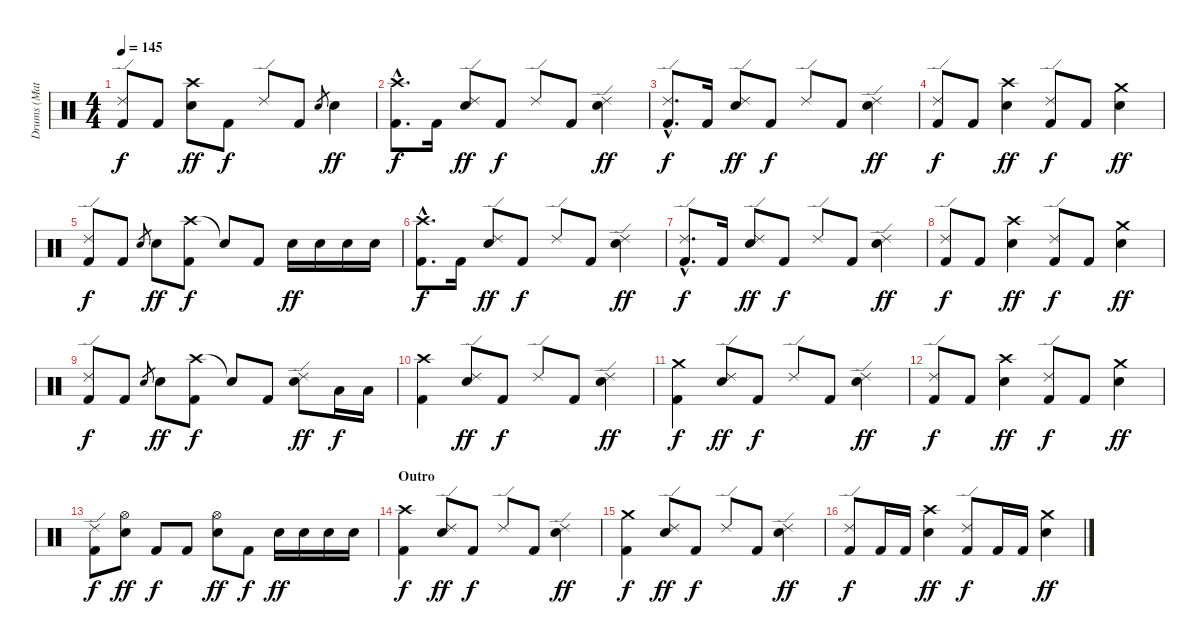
\track ("Drums (Matt)" "Drums (Mat") {instrument percussion}
\staff {score}
\articulation defaults
\ts (4 4)
\tempo 145
\clef neutral
\ks c
("Ride (edge) 2" "Kick (hit) 2").8{dy f} "Kick (hit) 2".8 ("Crash high (hit)" "Snare (hit) 2").8{dy ff} "Kick (hit) 2".8{dy f} "Ride (edge) 2".8 "Kick (hit) 2".8 "Snare (hit) 2".8{gr} "Snare (hit) 2".4{dy ff} |
("Crash high (hit)"{hac} "Kick (hit) 2"{hac}).8{d dy f} "Kick (hit) 2".16 ("Ride (edge) 2" "Snare (hit) 2").8{dy ff} "Kick (hit) 2".8{dy f} "Ride (edge) 2".8 "Kick (hit) 2".8 ("Ride (edge) 2" "Snare (hit) 2").4{dy ff} |
("Ride (edge) 2"{hac} "Kick (hit) 2"{hac}).8{d dy f} "Kick (hit) 2".16 ("Ride (edge) 2" "Snare (hit) 2").8{dy ff} "Kick (hit) 2".8{dy f} "Ride (edge) 2".8 "Kick (hit) 2".8 ("Ride (edge) 2" "Snare (hit) 2").4{dy ff} |
("Ride (edge) 2" "Kick (hit) 2").8{dy f} "Kick (hit) 2".8 ("Crash high (hit)" "Snare (hit) 2").4{dy ff} ("Ride (edge) 2" "Kick (hit) 2").8{dy f} "Kick (hit) 2".8 ("Crash medium (hit)" "Snare (hit) 2").4{dy ff} |
("Ride (edge) 2" "Kick (hit) 2").8{dy f} "Kick (hit) 2".8 "Snare (hit) 2".8{gr} "Snare (hit) 2".8{dy ff} ("Crash high (hit)" "Kick (hit) 2").8{dy f} "Snare (hit)"{t}.8 "Kick (hit) 2".8 "Snare (hit) 2".16{dy ff} "Snare (hit) 2".16 "Snare (hit) 2".16 "Snare (hit) 2".16 |
("Crash high (hit)"{hac} "Kick (hit) 2"{hac}).8{d dy f} "Kick (hit) 2".16 ("Ride (edge) 2" "Snare (hit) 2").8{dy ff} "Kick (hit) 2".8{dy f} "Ride (edge) 2".8 "Kick (hit) 2".8 ("Ride (edge) 2" "Snare (hit) 2").4{dy ff} |
("Ride (edge) 2"{hac} "Kick (hit) 2"{hac}).8{d dy f} "Kick (hit) 2".16 ("Ride (edge) 2" "Snare (hit) 2").8{dy ff} "Kick (hit) 2".8{dy f} "Ride (edge) 2".8 "Kick (hit) 2".8 ("Ride (edge) 2" "Snare (hit) 2").4{dy ff} |
("Ride (edge) 2" "Kick (hit) 2").8{dy f} "Kick (hit) 2".8 ("Crash high (hit)" "Snare (hit) 2").4{dy ff} ("Ride (edge) 2" "Kick (hit) 2").8{dy f} "Kick (hit) 2".8 ("Crash medium (hit)" "Snare (hit) 2").4{dy ff} |
("Ride (edge) 2" "Kick (hit) 2").8{dy f} "Kick (hit) 2".8 "Snare (hit) 2".8{gr} "Snare (hit) 2".8{dy ff} ("Crash high (hit)" "Kick (hit) 2").8{dy f} "Snare (hit)"{t}.8 "Kick (hit) 2".8 ("Ride (edge) 2" "Snare (hit) 2").8{dy ff} "Low Tom (hit)".16{dy f} "Low Tom (hit)".16 |
("Crash high (hit)" "Kick (hit) 2").4 ("Ride (edge) 2" "Snare (hit) 2").8{dy ff} "Kick (hit) 2".8{dy f} "Ride (edge) 2".8 "Kick (hit) 2".8 ("Ride (edge) 2" "Snare (hit) 2").4{dy ff} |
("Crash medium (hit)" "Kick (hit) 2").4{dy f} ("Ride (edge) 2" "Snare (hit) 2").8{dy ff} "Kick (hit) 2".8{dy f} "Ride (edge) 2".8 "Kick (hit) 2".8 ("Ride (edge) 2" "Snare (hit) 2").4{dy ff} |
("Ride (edge) 2" "Kick (hit) 2").8{dy f} "Kick (hit) 2".8 ("Crash high (hit)" "Snare (hit) 2").4{dy ff} ("Ride (edge) 2" "Kick (hit) 2").8{dy f} "Kick (hit) 2".8 ("Crash medium (hit)" "Snare (hit) 2").4{dy ff} |
("Ride (edge) 2" "Kick (hit) 2").8{dy f} ("Hi-Hat (open)" "Snare (hit) 2").8{dy ff} "Kick (hit) 2".8{dy f} "Kick (hit) 2".8 ("Hi-Hat (open)" "Snare (hit) 2").8{dy ff} "Kick (hit) 2".8{dy f} "Snare (hit) 2".16{dy ff} "Snare (hit) 2".16 "Snare (hit) 2".16 "Snare (hit) 2".16 |
\section ("" "Outro")
("Crash high (hit)" "Kick (hit) 2").4{dy f} ("Ride (edge) 2" "Snare (hit) 2").8{dy ff} "Kick (hit) 2".8{dy f} "Ride (edge) 2".8 "Kick (hit) 2".8 ("Ride (edge) 2" "Snare (hit) 2").4{dy ff} |
("Crash medium (hit)" "Kick (hit) 2").4{dy f} ("Ride (edge) 2" "Snare (hit) 2").8{dy ff} "Kick (hit) 2".8{dy f} "Ride (edge) 2".8 "Kick (hit) 2".8 ("Ride (edge) 2" "Snare (hit) 2").4{dy ff} |
("Ride (edge) 2" "Kick (hit) 2").8{dy f} "Kick (hit) 2".16 "Kick (hit) 2".16 ("Crash high (hit)" "Snare (hit) 2").4{dy ff} ("Ride (edge) 2" "Kick (hit) 2").8{dy f} "Kick (hit) 2".16 "Kick (hit) 2".16 ("Crash medium (hit)" "Snare (hit) 2").4{dy ff}
